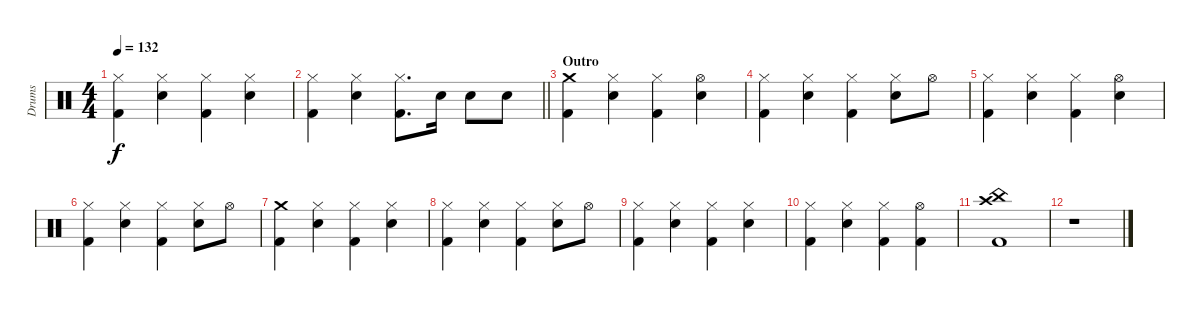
\track ("Drums" "Drums") {instrument percussion}
\staff {score}
\articulation defaults
\ts (4 4)
\tempo 132
\clef neutral
\ks c
("Hi-Hat (closed)" "Kick (hit) 2").4{dy f} ("Hi-Hat (closed)" "Electric Snare (hit)").4 ("Hi-Hat (closed)" "Kick (hit) 2").4 ("Hi-Hat (closed)" "Electric Snare (hit)").4 |
\barLineRight lightlight
("Hi-Hat (closed)" "Kick (hit) 2").4 ("Hi-Hat (closed)" "Electric Snare (hit)").4 ("Hi-Hat (closed)" "Kick (hit) 2").8{d} "Electric Snare (hit)".16 "Electric Snare (hit)".8 "Electric Snare (hit)".8 |
\section ("" "Outro")
("Crash medium (hit)" "Kick (hit) 2").4 ("Hi-Hat (closed)" "Electric Snare (hit)").4 ("Hi-Hat (closed)" "Kick (hit) 2").4 ("Hi-Hat (open)" "Electric Snare (hit)").4 |
("Hi-Hat (closed)" "Kick (hit) 2").4 ("Hi-Hat (closed)" "Electric Snare (hit)").4 ("Hi-Hat (closed)" "Kick (hit) 2").4 ("Hi-Hat (closed)" "Electric Snare (hit)").8 "Hi-Hat (open)".8 |
("Hi-Hat (closed)" "Kick (hit) 2").4 ("Hi-Hat (closed)" "Electric Snare (hit)").4 ("Hi-Hat (closed)" "Kick (hit) 2").4 ("Hi-Hat (open)" "Electric Snare (hit)").4 |
("Hi-Hat (closed)" "Kick (hit) 2").4 ("Hi-Hat (closed)" "Electric Snare (hit)").4 ("Hi-Hat (closed)" "Kick (hit) 2").4 ("Hi-Hat (closed)" "Electric Snare (hit)").8 "Hi-Hat (open)".8 |
("Crash medium (hit)" "Kick (hit) 2").4 ("Hi-Hat (closed)" "Electric Snare (hit)").4 ("Hi-Hat (closed)" "Kick (hit) 2").4 ("Hi-Hat (closed)" "Electric Snare (hit)").4 |
("Hi-Hat (closed)" "Kick (hit) 2").4 ("Hi-Hat (closed)" "Electric Snare (hit)").4 ("Hi-Hat (closed)" "Kick (hit) 2").4 ("Hi-Hat (closed)" "Electric Snare (hit)").8 "Hi-Hat (open)".8 |
("Hi-Hat (closed)" "Kick (hit) 2").4 ("Hi-Hat (closed)" "Electric Snare (hit)").4 ("Hi-Hat (closed)" "Kick (hit) 2").4 ("Hi-Hat (closed)" "Electric Snare (hit)").4 |
("Hi-Hat (closed)" "Kick (hit) 2").4 ("Hi-Hat (closed)" "Electric Snare (hit)").4 ("Hi-Hat (closed)" "Kick (hit) 2").4 ("Hi-Hat (open)" "Kick (hit) 2").4 |
("China (hit)" "Crash high (hit)" "Kick (hit) 2").1 |
r.1
